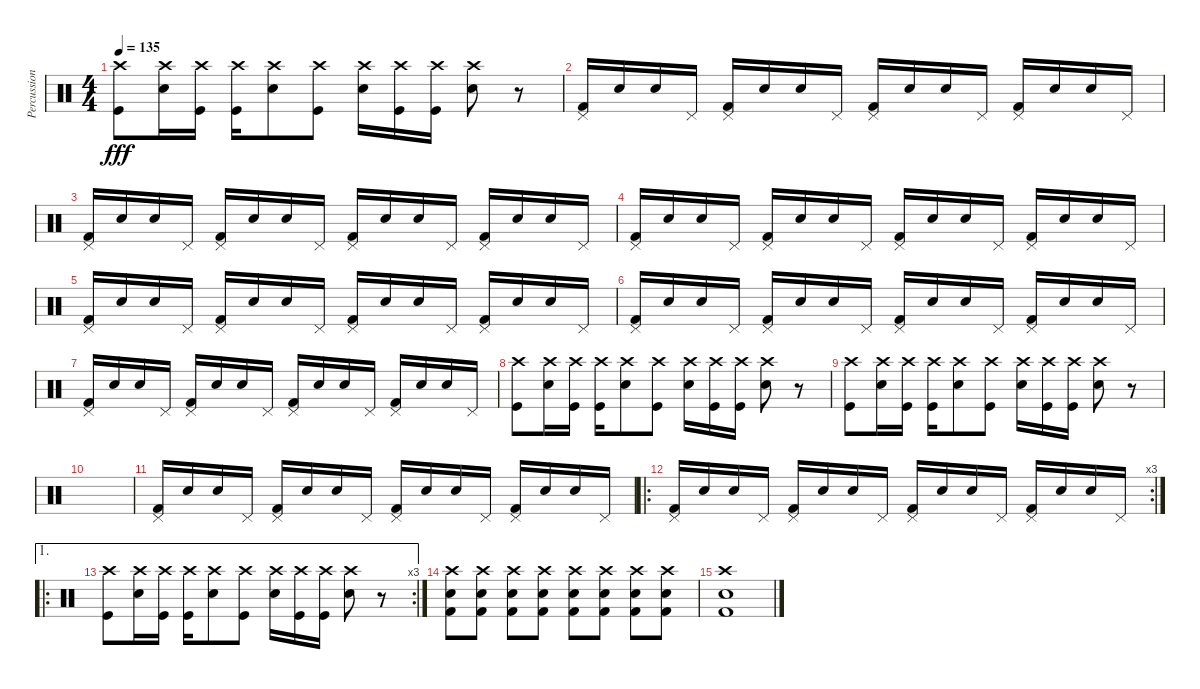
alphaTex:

\track ("Percussion" "Percussion") {instrument percussion}
\staff {score}
\articulation defaults
\ts (4 4)
\tempo 135
\clef neutral
\ks c
("Crash high (hit)" "Kick (hit)").8{dy fff} ("Crash high (hit)" "Snare (hit) 2").16 ("Crash high (hit)" "Kick (hit)").16 ("Crash high (hit)" "Kick (hit)").16 ("Crash high (hit)" "Snare (hit) 2").8 ("Crash high (hit)" "Kick (hit)").8 ("Crash high (hit)" "Snare (hit) 2").16 ("Crash high (hit)" "Kick (hit)").16 ("Crash high (hit)" "Kick (hit)").16 ("Crash high (hit)" "Snare (hit) 2").8 r.8 |
("Pedal Hi-Hat (hit)" "Kick (hit) 2").16 "Snare (hit) 2".16 "Snare (hit) 2".16 "Pedal Hi-Hat (hit)".16 ("Pedal Hi-Hat (hit)" "Kick (hit) 2").16 "Snare (hit) 2".16 "Snare (hit) 2".16 "Pedal Hi-Hat (hit)".16 ("Pedal Hi-Hat (hit)" "Kick (hit) 2").16 "Snare (hit) 2".16 "Snare (hit) 2".16 "Pedal Hi-Hat (hit)".16 ("Pedal Hi-Hat (hit)" "Kick (hit) 2").16 "Snare (hit) 2".16 "Snare (hit) 2".16 "Pedal Hi-Hat (hit)".16 |
("Pedal Hi-Hat (hit)" "Kick (hit) 2").16 "Snare (hit) 2".16 "Snare (hit) 2".16 "Pedal Hi-Hat (hit)".16 ("Pedal Hi-Hat (hit)" "Kick (hit) 2").16 "Snare (hit) 2".16 "Snare (hit) 2".16 "Pedal Hi-Hat (hit)".16 ("Pedal Hi-Hat (hit)" "Kick (hit) 2").16 "Snare (hit) 2".16 "Snare (hit) 2".16 "Pedal Hi-Hat (hit)".16 ("Pedal Hi-Hat (hit)" "Kick (hit) 2").16 "Snare (hit) 2".16 "Snare (hit) 2".16 "Pedal Hi-Hat (hit)".16 |
("Pedal Hi-Hat (hit)" "Kick (hit) 2").16 "Snare (hit) 2".16 "Snare (hit) 2".16 "Pedal Hi-Hat (hit)".16 ("Pedal Hi-Hat (hit)" "Kick (hit) 2").16 "Snare (hit) 2".16 "Snare (hit) 2".16 "Pedal Hi-Hat (hit)".16 ("Pedal Hi-Hat (hit)" "Kick (hit) 2").16 "Snare (hit) 2".16 "Snare (hit) 2".16 "Pedal Hi-Hat (hit)".16 ("Pedal Hi-Hat (hit)" "Kick (hit) 2").16 "Snare (hit) 2".16 "Snare (hit) 2".16 "Pedal Hi-Hat (hit)".16 |
("Pedal Hi-Hat (hit)" "Kick (hit) 2").16 "Snare (hit) 2".16 "Snare (hit) 2".16 "Pedal Hi-Hat (hit)".16 ("Pedal Hi-Hat (hit)" "Kick (hit) 2").16 "Snare (hit) 2".16 "Snare (hit) 2".16 "Pedal Hi-Hat (hit)".16 ("Pedal Hi-Hat (hit)" "Kick (hit) 2").16 "Snare (hit) 2".16 "Snare (hit) 2".16 "Pedal Hi-Hat (hit)".16 ("Pedal Hi-Hat (hit)" "Kick (hit) 2").16 "Snare (hit) 2".16 "Snare (hit) 2".16 "Pedal Hi-Hat (hit)".16 |
("Pedal Hi-Hat (hit)" "Kick (hit) 2").16 "Snare (hit) 2".16 "Snare (hit) 2".16 "Pedal Hi-Hat (hit)".16 ("Pedal Hi-Hat (hit)" "Kick (hit) 2").16 "Snare (hit) 2".16 "Snare (hit) 2".16 "Pedal Hi-Hat (hit)".16 ("Pedal Hi-Hat (hit)" "Kick (hit) 2").16 "Snare (hit) 2".16 "Snare (hit) 2".16 "Pedal Hi-Hat (hit)".16 ("Pedal Hi-Hat (hit)" "Kick (hit) 2").16 "Snare (hit) 2".16 "Snare (hit) 2".16 "Pedal Hi-Hat (hit)".16 |
("Pedal Hi-Hat (hit)" "Kick (hit) 2").16 "Snare (hit) 2".16 "Snare (hit) 2".16 "Pedal Hi-Hat (hit)".16 ("Pedal Hi-Hat (hit)" "Kick (hit) 2").16 "Snare (hit) 2".16 "Snare (hit) 2".16 "Pedal Hi-Hat (hit)".16 ("Pedal Hi-Hat (hit)" "Kick (hit) 2").16 "Snare (hit) 2".16 "Snare (hit) 2".16 "Pedal Hi-Hat (hit)".16 ("Pedal Hi-Hat (hit)" "Kick (hit) 2").16 "Snare (hit) 2".16 "Snare (hit) 2".16 "Pedal Hi-Hat (hit)".16 |
("Crash high (hit)" "Kick (hit)").8 ("Crash high (hit)" "Snare (hit) 2").16 ("Crash high (hit)" "Kick (hit)").16 ("Crash high (hit)" "Kick (hit)").16 ("Crash high (hit)" "Snare (hit) 2").8 ("Crash high (hit)" "Kick (hit)").8 ("Crash high (hit)" "Snare (hit) 2").16 ("Crash high (hit)" "Kick (hit)").16 ("Crash high (hit)" "Kick (hit)").16 ("Crash high (hit)" "Snare (hit) 2").8 r.8 |
("Crash high (hit)" "Kick (hit)").8 ("Crash high (hit)" "Snare (hit) 2").16 ("Crash high (hit)" "Kick (hit)").16 ("Crash high (hit)" "Kick (hit)").16 ("Crash high (hit)" "Snare (hit) 2").8 ("Crash high (hit)" "Kick (hit)").8 ("Crash high (hit)" "Snare (hit) 2").16 ("Crash high (hit)" "Kick (hit)").16 ("Crash high (hit)" "Kick (hit)").16 ("Crash high (hit)" "Snare (hit) 2").8 r.8 |
|
("Pedal Hi-Hat (hit)" "Kick (hit) 2").16 "Snare (hit) 2".16 "Snare (hit) 2".16 "Pedal Hi-Hat (hit)".16 ("Pedal Hi-Hat (hit)" "Kick (hit) 2").16 "Snare (hit) 2".16 "Snare (hit) 2".16 "Pedal Hi-Hat (hit)".16 ("Pedal Hi-Hat (hit)" "Kick (hit) 2").16 "Snare (hit) 2".16 "Snare (hit) 2".16 "Pedal Hi-Hat (hit)".16 ("Pedal Hi-Hat (hit)" "Kick (hit) 2").16 "Snare (hit) 2".16 "Snare (hit) 2".16 "Pedal Hi-Hat (hit)".16 |
\ro
\rc 3
("Pedal Hi-Hat (hit)" "Kick (hit) 2").16 "Snare (hit) 2".16 "Snare (hit) 2".16 "Pedal Hi-Hat (hit)".16 ("Pedal Hi-Hat (hit)" "Kick (hit) 2").16 "Snare (hit) 2".16 "Snare (hit) 2".16 "Pedal Hi-Hat (hit)".16 ("Pedal Hi-Hat (hit)" "Kick (hit) 2").16 "Snare (hit) 2".16 "Snare (hit) 2".16 "Pedal Hi-Hat (hit)".16 ("Pedal Hi-Hat (hit)" "Kick (hit) 2").16 "Snare (hit) 2".16 "Snare (hit) 2".16 "Pedal Hi-Hat (hit)".16 |
\ae 1
\ro
\rc 3
("Crash high (hit)" "Kick (hit)").8 ("Crash high (hit)" "Snare (hit) 2").16 ("Crash high (hit)" "Kick (hit)").16 ("Crash high (hit)" "Kick (hit)").16 ("Crash high (hit)" "Snare (hit) 2").8 ("Crash high (hit)" "Kick (hit)").8 ("Crash high (hit)" "Snare (hit) 2").16 ("Crash high (hit)" "Kick (hit)").16 ("Crash high (hit)" "Kick (hit)").16 ("Crash high (hit)" "Snare (hit) 2").8 r.8 |
("Crash high (hit)" "Snare (hit) 2" "Kick (hit) 2").8 ("Crash high (hit)" "Snare (hit) 2" "Kick (hit) 2").8 ("Crash high (hit)" "Snare (hit) 2" "Kick (hit) 2").8 ("Crash high (hit)" "Snare (hit) 2" "Kick (hit) 2").8 ("Crash high (hit)" "Snare (hit) 2" "Kick (hit) 2").8 ("Crash high (hit)" "Snare (hit) 2" "Kick (hit) 2").8 ("Crash high (hit)" "Snare (hit) 2" "Kick (hit) 2").8 ("Crash high (hit)" "Snare (hit) 2" "Kick (hit) 2").8 |
("Crash high (hit)" "Snare (hit) 2" "Kick (hit) 2").1
